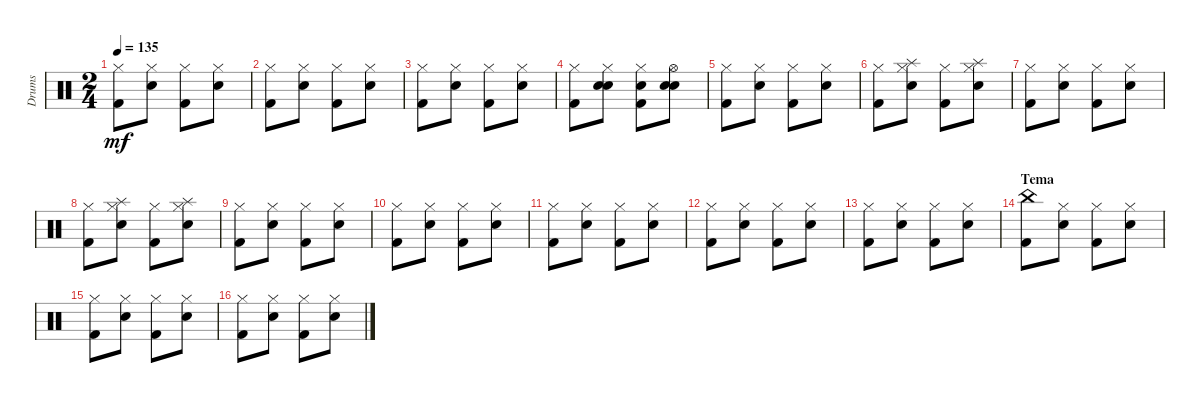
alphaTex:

\track ("Drums" "Drums") {instrument percussion}
\staff {score}
\articulation defaults
\ts (2 4)
\tempo 135
\clef neutral
\ks c
("Hi-Hat (closed)" "Kick (hit) 2").8{dy mf} ("Hi-Hat (closed)" "Electric Snare (hit)").8 ("Hi-Hat (closed)" "Kick (hit) 2").8 ("Hi-Hat (closed)" "Electric Snare (hit)").8 |
("Hi-Hat (closed)" "Kick (hit) 2").8 ("Hi-Hat (closed)" "Electric Snare (hit)").8 ("Hi-Hat (closed)" "Kick (hit) 2").8 ("Hi-Hat (closed)" "Electric Snare (hit)").8 |
("Hi-Hat (closed)" "Kick (hit) 2").8 ("Hi-Hat (closed)" "Electric Snare (hit)").8 ("Hi-Hat (closed)" "Kick (hit) 2").8 ("Hi-Hat (closed)" "Electric Snare (hit)").8 |
("Hi-Hat (closed)" "Kick (hit) 2").8 ("Hi-Hat (closed)" "Electric Snare (hit)" "Hand Clap (hit)").8 ("Hi-Hat (closed)" "Hand Clap (hit)" "Kick (hit) 2").8 ("Hi-Hat (open)" "Electric Snare (hit)" "Hand Clap (hit)").8 |
("Hi-Hat (closed)" "Kick (hit) 2").8 ("Hi-Hat (closed)" "Electric Snare (hit)").8 ("Hi-Hat (closed)" "Kick (hit) 2").8 ("Hi-Hat (closed)" "Electric Snare (hit)").8 |
("Hi-Hat (closed)" "Kick (hit) 2").8 ("Splash (hit)" "Hi-Hat (closed)" "Electric Snare (hit)").8 ("Hi-Hat (closed)" "Kick (hit) 2").8 ("Splash (hit)" "Hi-Hat (closed)" "Electric Snare (hit)").8 |
("Hi-Hat (closed)" "Kick (hit) 2").8 ("Hi-Hat (closed)" "Electric Snare (hit)").8 ("Hi-Hat (closed)" "Kick (hit) 2").8 ("Hi-Hat (closed)" "Electric Snare (hit)").8 |
("Hi-Hat (closed)" "Kick (hit) 2").8 ("Splash (hit)" "Hi-Hat (closed)" "Electric Snare (hit)").8 ("Hi-Hat (closed)" "Kick (hit) 2").8 ("Splash (hit)" "Hi-Hat (closed)" "Electric Snare (hit)").8 |
("Hi-Hat (closed)" "Kick (hit) 2").8 ("Hi-Hat (closed)" "Electric Snare (hit)").8 ("Hi-Hat (closed)" "Kick (hit) 2").8 ("Hi-Hat (closed)" "Electric Snare (hit)").8 |
("Hi-Hat (closed)" "Kick (hit) 2").8 ("Hi-Hat (closed)" "Electric Snare (hit)").8 ("Hi-Hat (closed)" "Kick (hit) 2").8 ("Hi-Hat (closed)" "Electric Snare (hit)").8 |
("Hi-Hat (closed)" "Kick (hit) 2").8 ("Hi-Hat (closed)" "Electric Snare (hit)").8 ("Hi-Hat (closed)" "Kick (hit) 2").8 ("Hi-Hat (closed)" "Electric Snare (hit)").8 |
("Hi-Hat (closed)" "Kick (hit) 2").8 ("Hi-Hat (closed)" "Electric Snare (hit)").8 ("Hi-Hat (closed)" "Kick (hit) 2").8 ("Hi-Hat (closed)" "Electric Snare (hit)").8 |
("Hi-Hat (closed)" "Kick (hit) 2").8 ("Hi-Hat (closed)" "Electric Snare (hit)").8 ("Hi-Hat (closed)" "Kick (hit) 2").8 ("Hi-Hat (closed)" "Electric Snare (hit)").8 |
\section ("" "Tema")
("China (hit)" "Kick (hit) 2").8 ("Hi-Hat (closed)" "Electric Snare (hit)").8 ("Hi-Hat (closed)" "Kick (hit) 2").8 ("Hi-Hat (closed)" "Electric Snare (hit)").8 |
("Hi-Hat (closed)" "Kick (hit) 2").8 ("Hi-Hat (closed)" "Electric Snare (hit)").8 ("Hi-Hat (closed)" "Kick (hit) 2").8 ("Hi-Hat (closed)" "Electric Snare (hit)").8 |
("Hi-Hat (closed)" "Kick (hit) 2").8 ("Hi-Hat (closed)" "Electric Snare (hit)").8 ("Hi-Hat (closed)" "Kick (hit) 2").8 ("Hi-Hat (closed)" "Electric Snare (hit)").8
